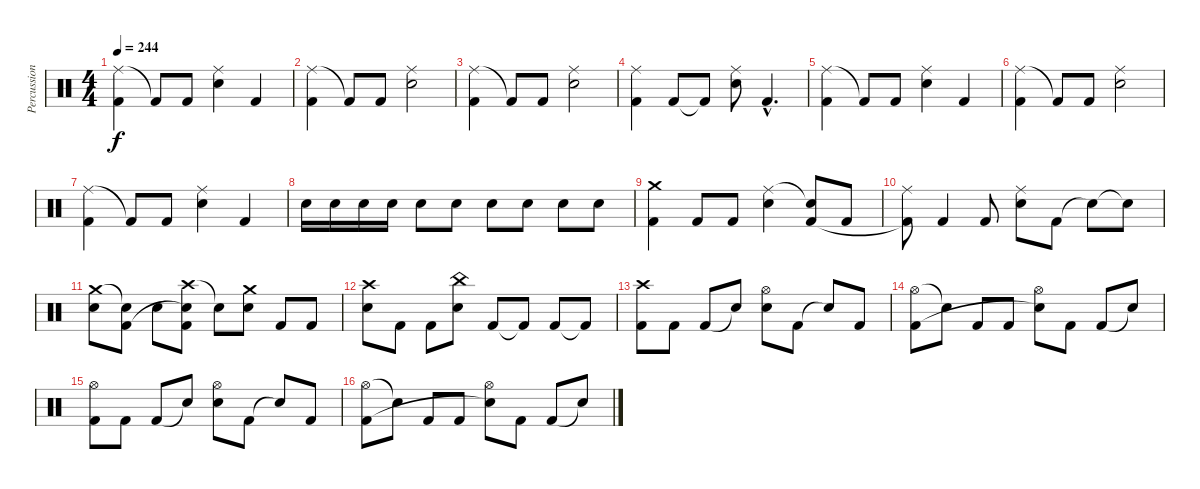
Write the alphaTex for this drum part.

\track ("Percussions" "Percussion") {instrument percussion}
\staff {score}
\articulation defaults
\ts (4 4)
\tempo 244
\clef neutral
\ks c
("Ride (middle)" "Kick (hit) 2").4{dy f} "Kick (hit) 2"{t}.8 "Kick (hit) 2".8 ("Ride (middle)" "Electric Snare (hit)").4 "Kick (hit) 2".4 |
("Ride (middle)" "Kick (hit) 2").4 "Kick (hit) 2"{t}.8 "Kick (hit) 2".8 ("Ride (middle)" "Electric Snare (hit)").2 |
("Ride (middle)" "Kick (hit) 2").4 "Kick (hit) 2"{t}.8 "Kick (hit) 2".8 ("Ride (middle)" "Electric Snare (hit)").2 |
("Ride (middle)" "Kick (hit) 2").4 "Kick (hit) 2".8 "Kick (hit) 2"{t}.8 ("Ride (middle)" "Electric Snare (hit)").8 "Kick (hit) 2"{hac}.4{d} |
("Ride (middle)" "Kick (hit) 2").4 "Kick (hit) 2"{t}.8 "Kick (hit) 2".8 ("Ride (middle)" "Electric Snare (hit)").4 "Kick (hit) 2".4 |
("Ride (middle)" "Kick (hit) 2").4 "Kick (hit) 2"{t}.8 "Kick (hit) 2".8 ("Ride (middle)" "Electric Snare (hit)").2 |
("Ride (middle)" "Kick (hit) 2").4 "Kick (hit) 2"{t}.8 "Kick (hit) 2".8 ("Ride (middle)" "Electric Snare (hit)").4 "Kick (hit) 2".4 |
"Electric Snare (hit)".16 "Electric Snare (hit)".16 "Electric Snare (hit)".16 "Electric Snare (hit)".16 "Electric Snare (hit)".8 "Electric Snare (hit)".8 "Electric Snare (hit)".8 "Electric Snare (hit)".8 "Electric Snare (hit)".8 "Electric Snare (hit)".8 |
("Crash medium (hit)" "Kick (hit) 2").4 "Kick (hit) 2".8 "Kick (hit) 2".8 ("Ride (middle)" "Electric Snare (hit)").4 ("Snare (hit)"{t} "Kick (hit) 2").8 "Kick (hit) 2".8 |
("Ride (middle)" "Kick (hit) 2"{t}).8 "Kick (hit) 2".4 "Kick (hit) 2".8 ("Ride (middle)" "Electric Snare (hit)").8 "Kick (hit) 2".8 "Snare (hit)"{t}.8 "Snare (hit)"{t}.8 |
("Crash medium (hit)" "Electric Snare (hit)").8 ("Snare (hit)"{t} "Kick (hit) 2").8 "Electric Snare (hit)".8 ("Crash high (hit)" "Snare (hit)"{t} "Kick (hit) 2").8 "Snare (hit)"{t}.8 ("Crash medium (hit)" "Electric Snare (hit)").8 "Kick (hit) 2".8 "Kick (hit) 2".8 |
("Crash high (hit)" "Electric Snare (hit)").8 "Kick (hit) 2".8 "Kick (hit) 2".8 ("China (hit)" "Electric Snare (hit)").8 "Kick (hit) 2".8 "Kick (hit) 2"{t}.8 "Kick (hit) 2".8 "Kick (hit) 2"{t}.8 |
("Crash high (hit)" "Kick (hit) 2").8 "Kick (hit) 2".8 "Kick (hit) 2".8 "Snare (hit)"{t}.8 ("Hi-Hat (open)" "Electric Snare (hit)").8 "Kick (hit) 2".8 "Snare (hit)"{t}.8 "Kick (hit) 2".8 |
("Hi-Hat (open)" "Kick (hit) 2").8 "Snare (hit)"{t}.8 "Kick (hit) 2".8 "Kick (hit) 2".8 ("Hi-Hat (open)" "Snare (hit)"{t}).8 "Kick (hit) 2".8 "Kick (hit) 2".8 "Snare (hit)"{t}.8 |
("Hi-Hat (open)" "Kick (hit) 2").8 "Kick (hit) 2".8 "Kick (hit) 2".8 "Snare (hit)"{t}.8 ("Hi-Hat (open)" "Electric Snare (hit)").8 "Kick (hit) 2".8 "Snare (hit)"{t}.8 "Kick (hit) 2".8 |
("Hi-Hat (open)" "Kick (hit) 2").8 "Snare (hit)"{t}.8 "Kick (hit) 2".8 "Kick (hit) 2".8 ("Hi-Hat (open)" "Snare (hit)"{t}).8 "Kick (hit) 2".8 "Kick (hit) 2".8 "Snare (hit)"{t}.8
